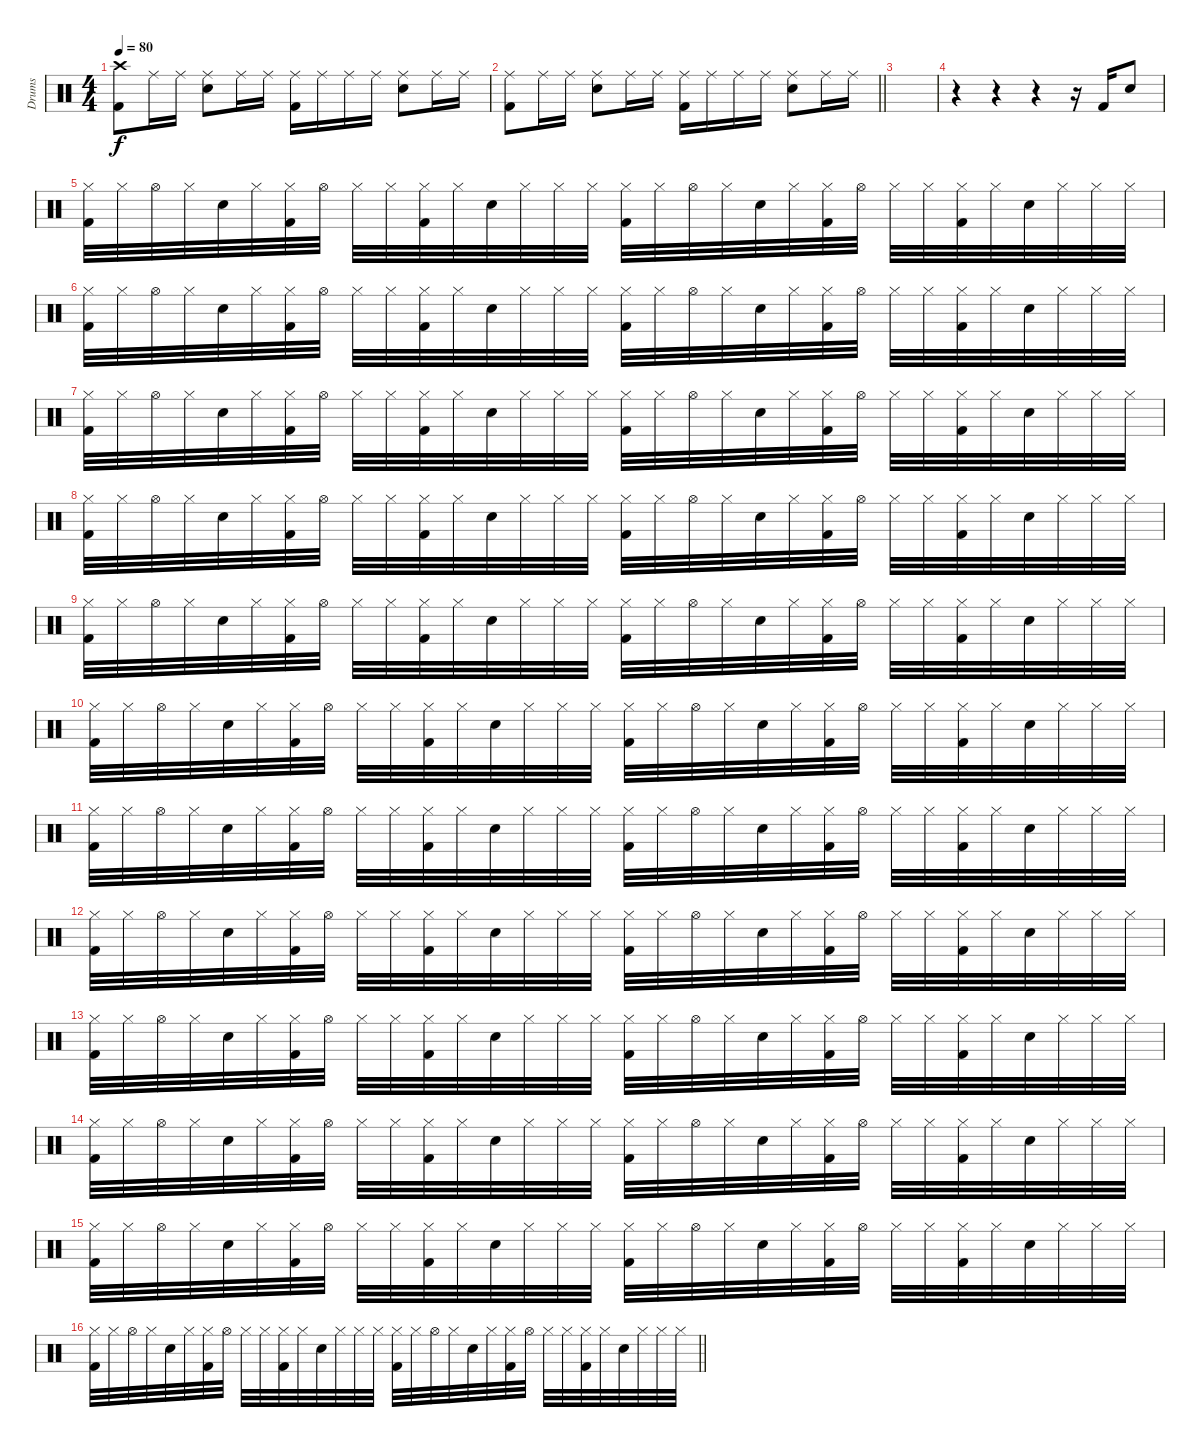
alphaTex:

\track ("Drums" "Drums") {instrument percussion}
\staff {score}
\articulation defaults
\ts (4 4)
\tempo 80
\clef neutral
\ks c
("Kick (hit) 2" "Crash high (hit)").8{dy f} "Ride (middle)".16 "Ride (middle)".16 ("Electric Snare (hit)" "Ride (middle)").8 "Ride (middle)".16 "Ride (middle)".16 ("Kick (hit) 2" "Ride (middle)").16 "Ride (middle)".16 "Ride (middle)".16 "Ride (middle)".16 ("Electric Snare (hit)" "Ride (middle)").8 "Ride (middle)".16 "Ride (middle)".16 |
\barLineRight lightlight
("Kick (hit) 2" "Ride (middle)").8 "Ride (middle)".16 "Ride (middle)".16 ("Electric Snare (hit)" "Ride (middle)").8 "Ride (middle)".16 "Ride (middle)".16 ("Kick (hit) 2" "Ride (middle)").16 "Ride (middle)".16 "Ride (middle)".16 "Ride (middle)".16 ("Electric Snare (hit)" "Ride (middle)").8 "Ride (middle)".16 "Ride (middle)".16 |
\section ("" "")
|
r.4 r.4 r.4 r.16 "Kick (hit) 2".16 "Electric Snare (hit)".8 |
("Kick (hit) 2" "Hi-Hat (closed)").32 "Hi-Hat (closed)".32 "Hi-Hat (open)".32 "Hi-Hat (closed)".32 "Electric Snare (hit)".32 "Hi-Hat (closed)".32 ("Kick (hit) 2" "Hi-Hat (closed)").32 "Hi-Hat (open)".32 "Hi-Hat (closed)".32 "Hi-Hat (closed)".32 ("Kick (hit) 2" "Hi-Hat (closed)").32 "Hi-Hat (closed)".32 "Electric Snare (hit)".32 "Hi-Hat (closed)".32 "Hi-Hat (closed)".32 "Hi-Hat (closed)".32 ("Kick (hit) 2" "Hi-Hat (closed)").32 "Hi-Hat (closed)".32 "Hi-Hat (open)".32 "Hi-Hat (closed)".32 "Electric Snare (hit)".32 "Hi-Hat (closed)".32 ("Kick (hit) 2" "Hi-Hat (closed)").32 "Hi-Hat (open)".32 "Hi-Hat (closed)".32 "Hi-Hat (closed)".32 ("Kick (hit) 2" "Hi-Hat (closed)").32 "Hi-Hat (closed)".32 "Electric Snare (hit)".32 "Hi-Hat (closed)".32 "Hi-Hat (closed)".32 "Hi-Hat (closed)".32 |
("Kick (hit) 2" "Hi-Hat (closed)").32 "Hi-Hat (closed)".32 "Hi-Hat (open)".32 "Hi-Hat (closed)".32 "Electric Snare (hit)".32 "Hi-Hat (closed)".32 ("Kick (hit) 2" "Hi-Hat (closed)").32 "Hi-Hat (open)".32 "Hi-Hat (closed)".32 "Hi-Hat (closed)".32 ("Kick (hit) 2" "Hi-Hat (closed)").32 "Hi-Hat (closed)".32 "Electric Snare (hit)".32 "Hi-Hat (closed)".32 "Hi-Hat (closed)".32 "Hi-Hat (closed)".32 ("Kick (hit) 2" "Hi-Hat (closed)").32 "Hi-Hat (closed)".32 "Hi-Hat (open)".32 "Hi-Hat (closed)".32 "Electric Snare (hit)".32 "Hi-Hat (closed)".32 ("Kick (hit) 2" "Hi-Hat (closed)").32 "Hi-Hat (open)".32 "Hi-Hat (closed)".32 "Hi-Hat (closed)".32 ("Kick (hit) 2" "Hi-Hat (closed)").32 "Hi-Hat (closed)".32 "Electric Snare (hit)".32 "Hi-Hat (closed)".32 "Hi-Hat (closed)".32 "Hi-Hat (closed)".32 |
("Kick (hit) 2" "Hi-Hat (closed)").32 "Hi-Hat (closed)".32 "Hi-Hat (open)".32 "Hi-Hat (closed)".32 "Electric Snare (hit)".32 "Hi-Hat (closed)".32 ("Kick (hit) 2" "Hi-Hat (closed)").32 "Hi-Hat (open)".32 "Hi-Hat (closed)".32 "Hi-Hat (closed)".32 ("Kick (hit) 2" "Hi-Hat (closed)").32 "Hi-Hat (closed)".32 "Electric Snare (hit)".32 "Hi-Hat (closed)".32 "Hi-Hat (closed)".32 "Hi-Hat (closed)".32 ("Kick (hit) 2" "Hi-Hat (closed)").32 "Hi-Hat (closed)".32 "Hi-Hat (open)".32 "Hi-Hat (closed)".32 "Electric Snare (hit)".32 "Hi-Hat (closed)".32 ("Kick (hit) 2" "Hi-Hat (closed)").32 "Hi-Hat (open)".32 "Hi-Hat (closed)".32 "Hi-Hat (closed)".32 ("Kick (hit) 2" "Hi-Hat (closed)").32 "Hi-Hat (closed)".32 "Electric Snare (hit)".32 "Hi-Hat (closed)".32 "Hi-Hat (closed)".32 "Hi-Hat (closed)".32 |
("Kick (hit) 2" "Hi-Hat (closed)").32 "Hi-Hat (closed)".32 "Hi-Hat (open)".32 "Hi-Hat (closed)".32 "Electric Snare (hit)".32 "Hi-Hat (closed)".32 ("Kick (hit) 2" "Hi-Hat (closed)").32 "Hi-Hat (open)".32 "Hi-Hat (closed)".32 "Hi-Hat (closed)".32 ("Kick (hit) 2" "Hi-Hat (closed)").32 "Hi-Hat (closed)".32 "Electric Snare (hit)".32 "Hi-Hat (closed)".32 "Hi-Hat (closed)".32 "Hi-Hat (closed)".32 ("Kick (hit) 2" "Hi-Hat (closed)").32 "Hi-Hat (closed)".32 "Hi-Hat (open)".32 "Hi-Hat (closed)".32 "Electric Snare (hit)".32 "Hi-Hat (closed)".32 ("Kick (hit) 2" "Hi-Hat (closed)").32 "Hi-Hat (open)".32 "Hi-Hat (closed)".32 "Hi-Hat (closed)".32 ("Kick (hit) 2" "Hi-Hat (closed)").32 "Hi-Hat (closed)".32 "Electric Snare (hit)".32 "Hi-Hat (closed)".32 "Hi-Hat (closed)".32 "Hi-Hat (closed)".32 |
("Kick (hit) 2" "Hi-Hat (closed)").32 "Hi-Hat (closed)".32 "Hi-Hat (open)".32 "Hi-Hat (closed)".32 "Electric Snare (hit)".32 "Hi-Hat (closed)".32 ("Kick (hit) 2" "Hi-Hat (closed)").32 "Hi-Hat (open)".32 "Hi-Hat (closed)".32 "Hi-Hat (closed)".32 ("Kick (hit) 2" "Hi-Hat (closed)").32 "Hi-Hat (closed)".32 "Electric Snare (hit)".32 "Hi-Hat (closed)".32 "Hi-Hat (closed)".32 "Hi-Hat (closed)".32 ("Kick (hit) 2" "Hi-Hat (closed)").32 "Hi-Hat (closed)".32 "Hi-Hat (open)".32 "Hi-Hat (closed)".32 "Electric Snare (hit)".32 "Hi-Hat (closed)".32 ("Kick (hit) 2" "Hi-Hat (closed)").32 "Hi-Hat (open)".32 "Hi-Hat (closed)".32 "Hi-Hat (closed)".32 ("Kick (hit) 2" "Hi-Hat (closed)").32 "Hi-Hat (closed)".32 "Electric Snare (hit)".32 "Hi-Hat (closed)".32 "Hi-Hat (closed)".32 "Hi-Hat (closed)".32 |
("Kick (hit) 2" "Hi-Hat (closed)").32 "Hi-Hat (closed)".32 "Hi-Hat (open)".32 "Hi-Hat (closed)".32 "Electric Snare (hit)".32 "Hi-Hat (closed)".32 ("Kick (hit) 2" "Hi-Hat (closed)").32 "Hi-Hat (open)".32 "Hi-Hat (closed)".32 "Hi-Hat (closed)".32 ("Kick (hit) 2" "Hi-Hat (closed)").32 "Hi-Hat (closed)".32 "Electric Snare (hit)".32 "Hi-Hat (closed)".32 "Hi-Hat (closed)".32 "Hi-Hat (closed)".32 ("Kick (hit) 2" "Hi-Hat (closed)").32 "Hi-Hat (closed)".32 "Hi-Hat (open)".32 "Hi-Hat (closed)".32 "Electric Snare (hit)".32 "Hi-Hat (closed)".32 ("Kick (hit) 2" "Hi-Hat (closed)").32 "Hi-Hat (open)".32 "Hi-Hat (closed)".32 "Hi-Hat (closed)".32 ("Kick (hit) 2" "Hi-Hat (closed)").32 "Hi-Hat (closed)".32 "Electric Snare (hit)".32 "Hi-Hat (closed)".32 "Hi-Hat (closed)".32 "Hi-Hat (closed)".32 |
("Kick (hit) 2" "Hi-Hat (closed)").32 "Hi-Hat (closed)".32 "Hi-Hat (open)".32 "Hi-Hat (closed)".32 "Electric Snare (hit)".32 "Hi-Hat (closed)".32 ("Kick (hit) 2" "Hi-Hat (closed)").32 "Hi-Hat (open)".32 "Hi-Hat (closed)".32 "Hi-Hat (closed)".32 ("Kick (hit) 2" "Hi-Hat (closed)").32 "Hi-Hat (closed)".32 "Electric Snare (hit)".32 "Hi-Hat (closed)".32 "Hi-Hat (closed)".32 "Hi-Hat (closed)".32 ("Kick (hit) 2" "Hi-Hat (closed)").32 "Hi-Hat (closed)".32 "Hi-Hat (open)".32 "Hi-Hat (closed)".32 "Electric Snare (hit)".32 "Hi-Hat (closed)".32 ("Kick (hit) 2" "Hi-Hat (closed)").32 "Hi-Hat (open)".32 "Hi-Hat (closed)".32 "Hi-Hat (closed)".32 ("Kick (hit) 2" "Hi-Hat (closed)").32 "Hi-Hat (closed)".32 "Electric Snare (hit)".32 "Hi-Hat (closed)".32 "Hi-Hat (closed)".32 "Hi-Hat (closed)".32 |
("Kick (hit) 2" "Hi-Hat (closed)").32 "Hi-Hat (closed)".32 "Hi-Hat (open)".32 "Hi-Hat (closed)".32 "Electric Snare (hit)".32 "Hi-Hat (closed)".32 ("Kick (hit) 2" "Hi-Hat (closed)").32 "Hi-Hat (open)".32 "Hi-Hat (closed)".32 "Hi-Hat (closed)".32 ("Kick (hit) 2" "Hi-Hat (closed)").32 "Hi-Hat (closed)".32 "Electric Snare (hit)".32 "Hi-Hat (closed)".32 "Hi-Hat (closed)".32 "Hi-Hat (closed)".32 ("Kick (hit) 2" "Hi-Hat (closed)").32 "Hi-Hat (closed)".32 "Hi-Hat (open)".32 "Hi-Hat (closed)".32 "Electric Snare (hit)".32 "Hi-Hat (closed)".32 ("Kick (hit) 2" "Hi-Hat (closed)").32 "Hi-Hat (open)".32 "Hi-Hat (closed)".32 "Hi-Hat (closed)".32 ("Kick (hit) 2" "Hi-Hat (closed)").32 "Hi-Hat (closed)".32 "Electric Snare (hit)".32 "Hi-Hat (closed)".32 "Hi-Hat (closed)".32 "Hi-Hat (closed)".32 |
("Kick (hit) 2" "Hi-Hat (closed)").32 "Hi-Hat (closed)".32 "Hi-Hat (open)".32 "Hi-Hat (closed)".32 "Electric Snare (hit)".32 "Hi-Hat (closed)".32 ("Kick (hit) 2" "Hi-Hat (closed)").32 "Hi-Hat (open)".32 "Hi-Hat (closed)".32 "Hi-Hat (closed)".32 ("Kick (hit) 2" "Hi-Hat (closed)").32 "Hi-Hat (closed)".32 "Electric Snare (hit)".32 "Hi-Hat (closed)".32 "Hi-Hat (closed)".32 "Hi-Hat (closed)".32 ("Kick (hit) 2" "Hi-Hat (closed)").32 "Hi-Hat (closed)".32 "Hi-Hat (open)".32 "Hi-Hat (closed)".32 "Electric Snare (hit)".32 "Hi-Hat (closed)".32 ("Kick (hit) 2" "Hi-Hat (closed)").32 "Hi-Hat (open)".32 "Hi-Hat (closed)".32 "Hi-Hat (closed)".32 ("Kick (hit) 2" "Hi-Hat (closed)").32 "Hi-Hat (closed)".32 "Electric Snare (hit)".32 "Hi-Hat (closed)".32 "Hi-Hat (closed)".32 "Hi-Hat (closed)".32 |
("Kick (hit) 2" "Hi-Hat (closed)").32 "Hi-Hat (closed)".32 "Hi-Hat (open)".32 "Hi-Hat (closed)".32 "Electric Snare (hit)".32 "Hi-Hat (closed)".32 ("Kick (hit) 2" "Hi-Hat (closed)").32 "Hi-Hat (open)".32 "Hi-Hat (closed)".32 "Hi-Hat (closed)".32 ("Kick (hit) 2" "Hi-Hat (closed)").32 "Hi-Hat (closed)".32 "Electric Snare (hit)".32 "Hi-Hat (closed)".32 "Hi-Hat (closed)".32 "Hi-Hat (closed)".32 ("Kick (hit) 2" "Hi-Hat (closed)").32 "Hi-Hat (closed)".32 "Hi-Hat (open)".32 "Hi-Hat (closed)".32 "Electric Snare (hit)".32 "Hi-Hat (closed)".32 ("Kick (hit) 2" "Hi-Hat (closed)").32 "Hi-Hat (open)".32 "Hi-Hat (closed)".32 "Hi-Hat (closed)".32 ("Kick (hit) 2" "Hi-Hat (closed)").32 "Hi-Hat (closed)".32 "Electric Snare (hit)".32 "Hi-Hat (closed)".32 "Hi-Hat (closed)".32 "Hi-Hat (closed)".32 |
("Kick (hit) 2" "Hi-Hat (closed)").32 "Hi-Hat (closed)".32 "Hi-Hat (open)".32 "Hi-Hat (closed)".32 "Electric Snare (hit)".32 "Hi-Hat (closed)".32 ("Kick (hit) 2" "Hi-Hat (closed)").32 "Hi-Hat (open)".32 "Hi-Hat (closed)".32 "Hi-Hat (closed)".32 ("Kick (hit) 2" "Hi-Hat (closed)").32 "Hi-Hat (closed)".32 "Electric Snare (hit)".32 "Hi-Hat (closed)".32 "Hi-Hat (closed)".32 "Hi-Hat (closed)".32 ("Kick (hit) 2" "Hi-Hat (closed)").32 "Hi-Hat (closed)".32 "Hi-Hat (open)".32 "Hi-Hat (closed)".32 "Electric Snare (hit)".32 "Hi-Hat (closed)".32 ("Kick (hit) 2" "Hi-Hat (closed)").32 "Hi-Hat (open)".32 "Hi-Hat (closed)".32 "Hi-Hat (closed)".32 ("Kick (hit) 2" "Hi-Hat (closed)").32 "Hi-Hat (closed)".32 "Electric Snare (hit)".32 "Hi-Hat (closed)".32 "Hi-Hat (closed)".32 "Hi-Hat (closed)".32 |
\barLineRight lightlight
("Kick (hit) 2" "Hi-Hat (closed)").32 "Hi-Hat (closed)".32 "Hi-Hat (open)".32 "Hi-Hat (closed)".32 "Electric Snare (hit)".32 "Hi-Hat (closed)".32 ("Kick (hit) 2" "Hi-Hat (closed)").32 "Hi-Hat (open)".32 "Hi-Hat (closed)".32 "Hi-Hat (closed)".32 ("Kick (hit) 2" "Hi-Hat (closed)").32 "Hi-Hat (closed)".32 "Electric Snare (hit)".32 "Hi-Hat (closed)".32 "Hi-Hat (closed)".32 "Hi-Hat (closed)".32 ("Kick (hit) 2" "Hi-Hat (closed)").32 "Hi-Hat (closed)".32 "Hi-Hat (open)".32 "Hi-Hat (closed)".32 "Electric Snare (hit)".32 "Hi-Hat (closed)".32 ("Kick (hit) 2" "Hi-Hat (closed)").32 "Hi-Hat (open)".32 "Hi-Hat (closed)".32 "Hi-Hat (closed)".32 ("Kick (hit) 2" "Hi-Hat (closed)").32 "Hi-Hat (closed)".32 "Electric Snare (hit)".32 "Hi-Hat (closed)".32 "Hi-Hat (closed)".32 "Hi-Hat (closed)".32
